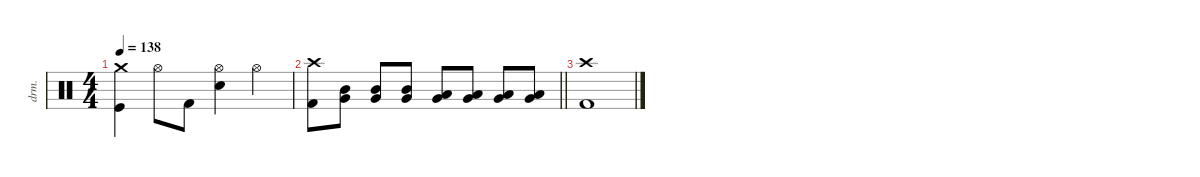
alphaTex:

\defaultSystemsLayout 4
\hideDynamics
\bracketExtendMode nobrackets
\track ("Percussions" "drm.") {instrument percussion}
\staff {score}
\articulation defaults
\ts (4 4)
\tempo 138
\clef neutral
\ks aminor
("Crash medium (hit)" "Kick (hit)").4{dy f} "Hi-Hat (open)".8 "Kick (hit) 2".8 ("Hi-Hat (open)" "Snare (hit) 2").4 "Hi-Hat (open)".4 |
\barLineRight lightlight
("Crash high (hit)" "Kick (hit) 2").8 ("Mid Tom (hit)" "Very Low Tom (hit)").8 ("Very Low Tom (hit)" "Mid Tom (hit)").8 ("Very Low Tom (hit)" "Mid Tom (hit)").8 ("Very Low Tom (hit)" "Low Tom (hit)").8 ("Very Low Tom (hit)" "Low Tom (hit)").8 ("Very Low Tom (hit)" "Low Tom (hit)").8 ("Very Low Tom (hit)" "Low Tom (hit)").8 |
("Kick (hit) 2" "Crash high (hit)").1
